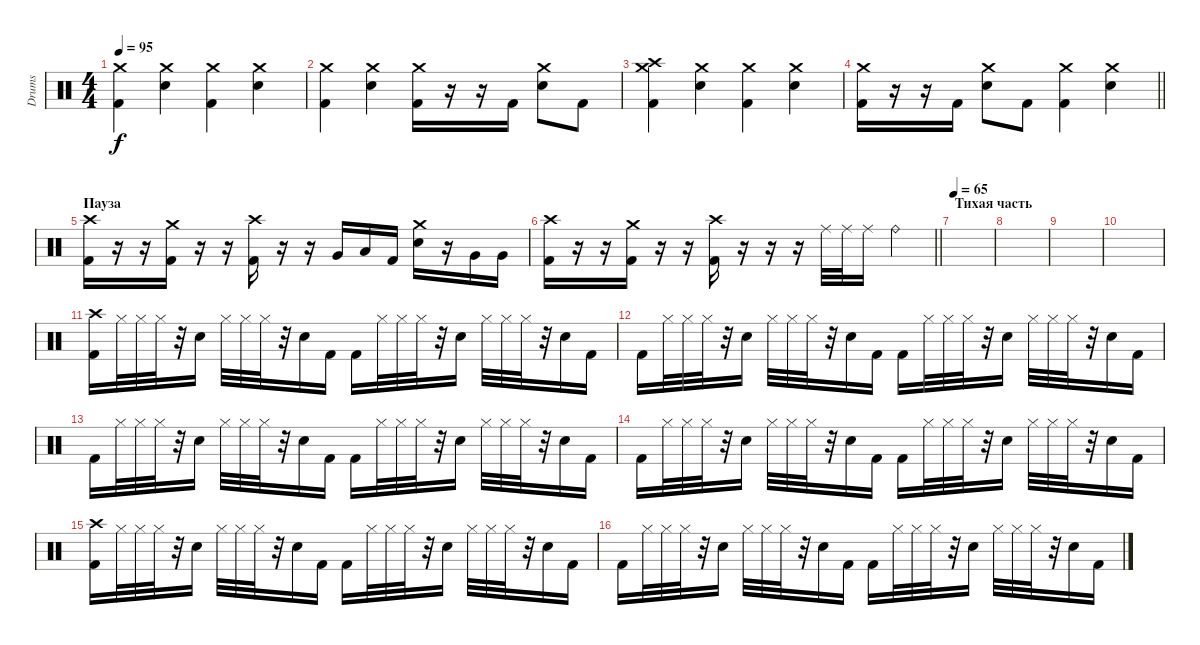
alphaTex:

\track ("Drums" "Drums") {instrument percussion}
\staff {score}
\articulation defaults
\ts (4 4)
\tempo 95
\clef neutral
\ks c
("Crash medium (hit)" "Kick (hit) 2").4{dy f} ("Crash medium (hit)" "Electric Snare (hit)").4 ("Crash medium (hit)" "Kick (hit) 2").4 ("Crash medium (hit)" "Electric Snare (hit)").4 |
("Crash medium (hit)" "Kick (hit) 2").4 ("Crash medium (hit)" "Electric Snare (hit)").4 ("Crash medium (hit)" "Kick (hit) 2").16 r.16 r.16 "Kick (hit) 2".16 ("Crash medium (hit)" "Electric Snare (hit)").8 "Kick (hit) 2".8 |
("Crash medium (hit)" "Crash high (hit)" "Kick (hit) 2").4 ("Crash medium (hit)" "Electric Snare (hit)").4 ("Crash medium (hit)" "Kick (hit) 2").4 ("Crash medium (hit)" "Electric Snare (hit)").4 |
\barLineRight lightlight
("Crash medium (hit)" "Kick (hit) 2").16 r.16 r.16 "Kick (hit) 2".16 ("Crash medium (hit)" "Electric Snare (hit)").8 "Kick (hit) 2".8 ("Crash medium (hit)" "Kick (hit) 2").4 ("Crash medium (hit)" "Electric Snare (hit)").4 |
\section ("" "Пауза")
("Crash high (hit)" "Kick (hit) 2").16 r.16 r.16 ("Crash medium (hit)" "Kick (hit) 2").16 r.16 r.16 ("Crash high (hit)" "Kick (hit) 2").16 r.16 r.16 "Very Low Tom (hit)".16 "Low Floor Tom (hit)".16 "Kick (hit) 2".16 ("Crash medium (hit)" "Electric Snare (hit)").16 r.16 "Very Low Tom (hit)".16 "Very Low Tom (hit)".16 |
\barLineRight lightlight
("Crash high (hit)" "Kick (hit) 2").16 r.16 r.16 ("Crash medium (hit)" "Kick (hit) 2").16 r.16 r.16 ("Crash high (hit)" "Kick (hit) 2").16 r.16 r.16 r.16 "Ride (middle)".32 "Ride (middle)".32 "Ride (middle)".16 "Ride (bell)".4 |
\section ("" "Тихая часть")
\tempo 65
|
|
|
|
("Crash high (hit)" "Kick (hit) 2").16 "Hi-Hat (closed)".32 "Hi-Hat (closed)".32 "Hi-Hat (closed)".32 r.32 "Electric Snare (hit)".16 "Hi-Hat (closed)".32 "Hi-Hat (closed)".32 "Hi-Hat (closed)".32 r.32 "Electric Snare (hit)".16 "Kick (hit) 2".16 "Kick (hit) 2".16 "Hi-Hat (closed)".32 "Hi-Hat (closed)".32 "Hi-Hat (closed)".32 r.32 "Electric Snare (hit)".16 "Hi-Hat (closed)".32 "Hi-Hat (closed)".32 "Hi-Hat (closed)".32 r.32 "Electric Snare (hit)".16 "Kick (hit) 2".16 |
"Kick (hit) 2".16 "Hi-Hat (closed)".32 "Hi-Hat (closed)".32 "Hi-Hat (closed)".32 r.32 "Electric Snare (hit)".16 "Hi-Hat (closed)".32 "Hi-Hat (closed)".32 "Hi-Hat (closed)".32 r.32 "Electric Snare (hit)".16 "Kick (hit) 2".16 "Kick (hit) 2".16 "Hi-Hat (closed)".32 "Hi-Hat (closed)".32 "Hi-Hat (closed)".32 r.32 "Electric Snare (hit)".16 "Hi-Hat (closed)".32 "Hi-Hat (closed)".32 "Hi-Hat (closed)".32 r.32 "Electric Snare (hit)".16 "Kick (hit) 2".16 |
"Kick (hit) 2".16 "Hi-Hat (closed)".32 "Hi-Hat (closed)".32 "Hi-Hat (closed)".32 r.32 "Electric Snare (hit)".16 "Hi-Hat (closed)".32 "Hi-Hat (closed)".32 "Hi-Hat (closed)".32 r.32 "Electric Snare (hit)".16 "Kick (hit) 2".16 "Kick (hit) 2".16 "Hi-Hat (closed)".32 "Hi-Hat (closed)".32 "Hi-Hat (closed)".32 r.32 "Electric Snare (hit)".16 "Hi-Hat (closed)".32 "Hi-Hat (closed)".32 "Hi-Hat (closed)".32 r.32 "Electric Snare (hit)".16 "Kick (hit) 2".16 |
"Kick (hit) 2".16 "Hi-Hat (closed)".32 "Hi-Hat (closed)".32 "Hi-Hat (closed)".32 r.32 "Electric Snare (hit)".16 "Hi-Hat (closed)".32 "Hi-Hat (closed)".32 "Hi-Hat (closed)".32 r.32 "Electric Snare (hit)".16 "Kick (hit) 2".16 "Kick (hit) 2".16 "Hi-Hat (closed)".32 "Hi-Hat (closed)".32 "Hi-Hat (closed)".32 r.32 "Electric Snare (hit)".16 "Hi-Hat (closed)".32 "Hi-Hat (closed)".32 "Hi-Hat (closed)".32 r.32 "Electric Snare (hit)".16 "Kick (hit) 2".16 |
("Crash high (hit)" "Kick (hit) 2").16 "Hi-Hat (closed)".32 "Hi-Hat (closed)".32 "Hi-Hat (closed)".32 r.32 "Electric Snare (hit)".16 "Hi-Hat (closed)".32 "Hi-Hat (closed)".32 "Hi-Hat (closed)".32 r.32 "Electric Snare (hit)".16 "Kick (hit) 2".16 "Kick (hit) 2".16 "Hi-Hat (closed)".32 "Hi-Hat (closed)".32 "Hi-Hat (closed)".32 r.32 "Electric Snare (hit)".16 "Hi-Hat (closed)".32 "Hi-Hat (closed)".32 "Hi-Hat (closed)".32 r.32 "Electric Snare (hit)".16 "Kick (hit) 2".16 |
"Kick (hit) 2".16 "Hi-Hat (closed)".32 "Hi-Hat (closed)".32 "Hi-Hat (closed)".32 r.32 "Electric Snare (hit)".16 "Hi-Hat (closed)".32 "Hi-Hat (closed)".32 "Hi-Hat (closed)".32 r.32 "Electric Snare (hit)".16 "Kick (hit) 2".16 "Kick (hit) 2".16 "Hi-Hat (closed)".32 "Hi-Hat (closed)".32 "Hi-Hat (closed)".32 r.32 "Electric Snare (hit)".16 "Hi-Hat (closed)".32 "Hi-Hat (closed)".32 "Hi-Hat (closed)".32 r.32 "Electric Snare (hit)".16 "Kick (hit) 2".16
